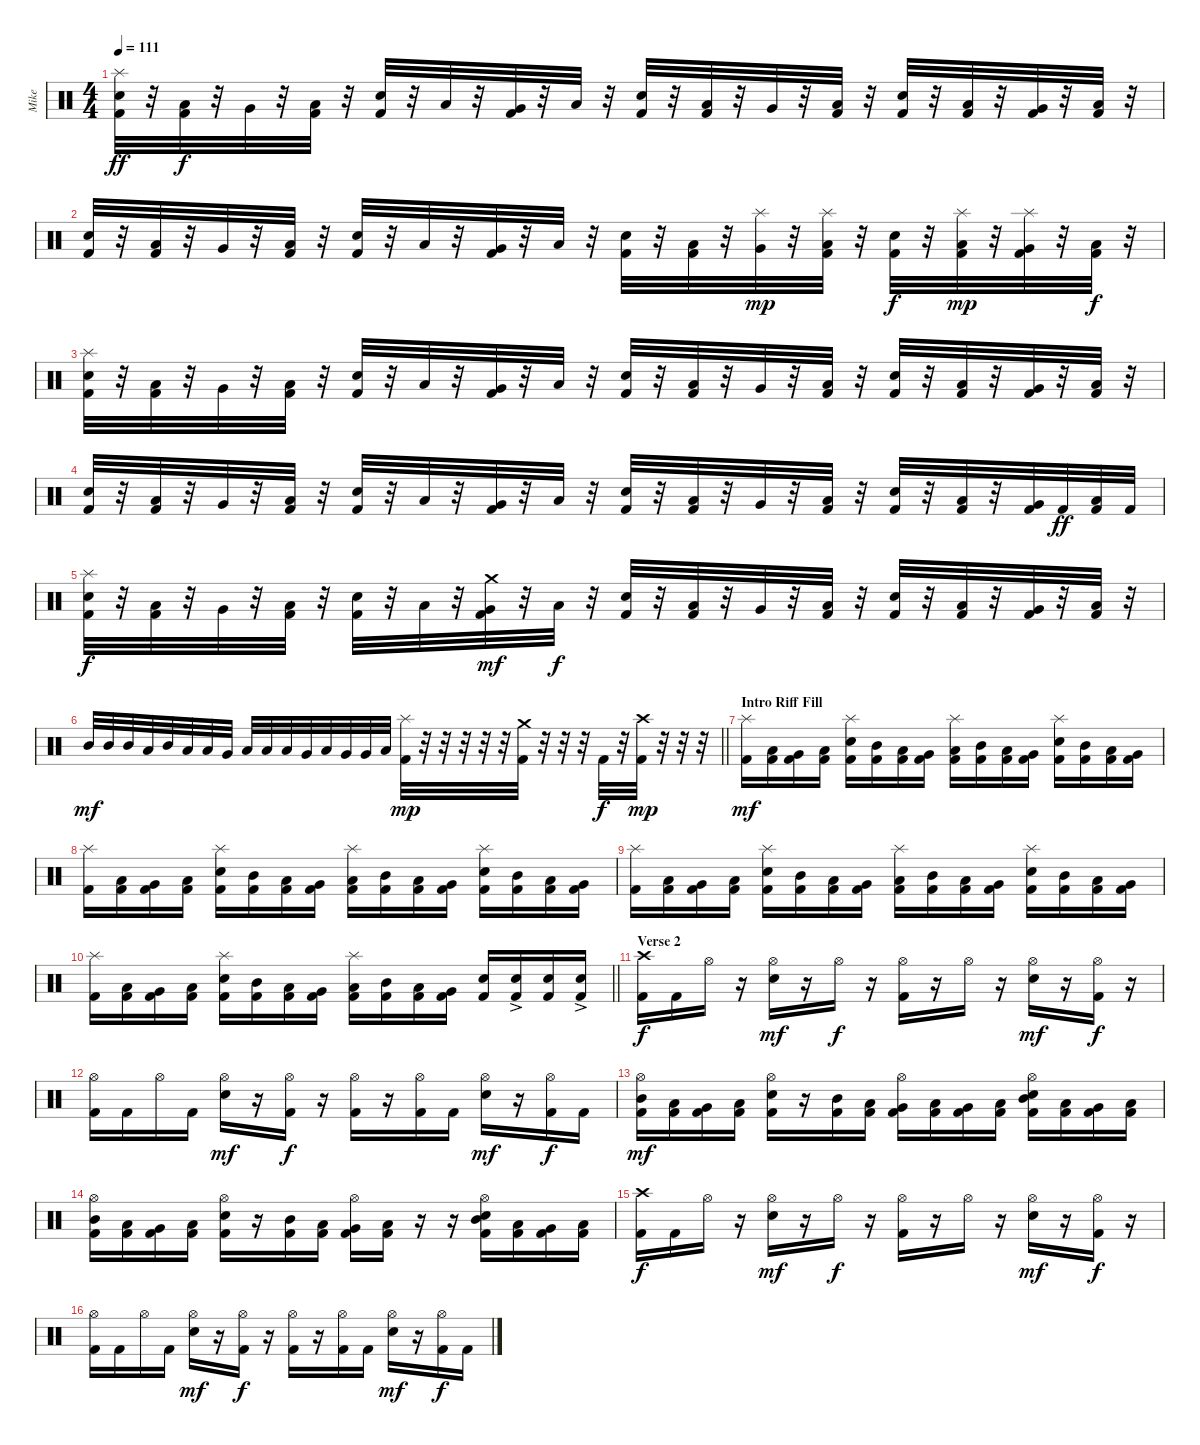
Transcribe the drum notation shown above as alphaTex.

\track ("Mike" "Mike") {instrument percussion}
\staff {score}
\articulation defaults
\ts (4 4)
\tempo 111
\clef neutral
\ks c
("Splash (hit)" "Snare (hit) 2" "Kick (hit) 2").32{dy ff} r.32 ("Low Tom (hit)" "Kick (hit) 2").32{dy f} r.32 "Very Low Tom (hit)".32 r.32 ("Low Floor Tom (hit)" "Kick (hit) 2").32 r.32 ("Snare (hit) 2" "Kick (hit) 2").32 r.32 "Low Tom (hit)".32 r.32 ("Very Low Tom (hit)" "Kick (hit) 2").32 r.32 "Low Floor Tom (hit)".32 r.32 ("Snare (hit) 2" "Kick (hit) 2").32 r.32 ("Low Tom (hit)" "Kick (hit) 2").32 r.32 "Very Low Tom (hit)".32 r.32 ("Low Floor Tom (hit)" "Kick (hit) 2").32 r.32 ("Snare (hit) 2" "Kick (hit) 2").32 r.32 ("Low Tom (hit)" "Kick (hit) 2").32 r.32 ("Very Low Tom (hit)" "Kick (hit) 2").32 r.32 ("Low Floor Tom (hit)" "Kick (hit) 2").32 r.32 |
("Snare (hit) 2" "Kick (hit) 2").32 r.32 ("Low Tom (hit)" "Kick (hit) 2").32 r.32 "Very Low Tom (hit)".32 r.32 ("Low Floor Tom (hit)" "Kick (hit) 2").32 r.32 ("Snare (hit) 2" "Kick (hit) 2").32 r.32 "Low Tom (hit)".32 r.32 ("Very Low Tom (hit)" "Kick (hit) 2").32 r.32 "Low Floor Tom (hit)".32 r.32 ("Snare (hit) 2" "Kick (hit) 2").32 r.32 ("Low Tom (hit)" "Kick (hit) 2").32 r.32 ("Splash (hit)" "Very Low Tom (hit)").32{dy mp} r.32 ("Splash (hit)" "Low Floor Tom (hit)" "Kick (hit) 2").32 r.32 ("Snare (hit) 2" "Kick (hit) 2").32{dy f} r.32 ("Splash (hit)" "Low Tom (hit)" "Kick (hit) 2").32{dy mp} r.32 ("Splash (hit)" "Very Low Tom (hit)" "Kick (hit) 2").32 r.32 ("Low Floor Tom (hit)" "Kick (hit) 2").32{dy f} r.32 |
("Splash (hit)" "Snare (hit) 2" "Kick (hit) 2").32 r.32 ("Low Tom (hit)" "Kick (hit) 2").32 r.32 "Very Low Tom (hit)".32 r.32 ("Low Floor Tom (hit)" "Kick (hit) 2").32 r.32 ("Snare (hit) 2" "Kick (hit) 2").32 r.32 "Low Tom (hit)".32 r.32 ("Very Low Tom (hit)" "Kick (hit) 2").32 r.32 "Low Floor Tom (hit)".32 r.32 ("Snare (hit) 2" "Kick (hit) 2").32 r.32 ("Low Tom (hit)" "Kick (hit) 2").32 r.32 "Very Low Tom (hit)".32 r.32 ("Low Floor Tom (hit)" "Kick (hit) 2").32 r.32 ("Snare (hit) 2" "Kick (hit) 2").32 r.32 ("Low Tom (hit)" "Kick (hit) 2").32 r.32 ("Very Low Tom (hit)" "Kick (hit) 2").32 r.32 ("Low Floor Tom (hit)" "Kick (hit) 2").32 r.32 |
("Snare (hit) 2" "Kick (hit) 2").32 r.32 ("Low Tom (hit)" "Kick (hit) 2").32 r.32 "Very Low Tom (hit)".32 r.32 ("Low Floor Tom (hit)" "Kick (hit) 2").32 r.32 ("Snare (hit) 2" "Kick (hit) 2").32 r.32 "Low Tom (hit)".32 r.32 ("Very Low Tom (hit)" "Kick (hit) 2").32 r.32 "Low Floor Tom (hit)".32 r.32 ("Snare (hit) 2" "Kick (hit) 2").32 r.32 ("Low Tom (hit)" "Kick (hit) 2").32 r.32 "Very Low Tom (hit)".32 r.32 ("Low Floor Tom (hit)" "Kick (hit) 2").32 r.32 ("Snare (hit) 2" "Kick (hit) 2").32 r.32 ("Low Tom (hit)" "Kick (hit) 2").32 r.32 ("Very Low Tom (hit)" "Kick (hit) 2").32 "Kick (hit) 2".32{dy ff} ("Low Floor Tom (hit)" "Kick (hit) 2").32 "Kick (hit) 2".32 |
("Splash (hit)" "Snare (hit) 2" "Kick (hit) 2").32{dy f} r.32 ("Low Tom (hit)" "Kick (hit) 2").32 r.32 "Very Low Tom (hit)".32 r.32 ("Low Floor Tom (hit)" "Kick (hit) 2").32 r.32 ("Snare (hit) 2" "Kick (hit) 2").32 r.32 "Low Tom (hit)".32 r.32 ("Crash medium (hit)" "Very Low Tom (hit)" "Kick (hit) 2").32{dy mf} r.32 "Low Floor Tom (hit)".32{dy f} r.32 ("Snare (hit) 2" "Kick (hit) 2").32 r.32 ("Low Tom (hit)" "Kick (hit) 2").32 r.32 "Very Low Tom (hit)".32 r.32 ("Low Floor Tom (hit)" "Kick (hit) 2").32 r.32 ("Snare (hit) 2" "Kick (hit) 2").32 r.32 ("Low Tom (hit)" "Kick (hit) 2").32 r.32 ("Very Low Tom (hit)" "Kick (hit) 2").32 r.32 ("Low Floor Tom (hit)" "Kick (hit) 2").32 r.32 |
\barLineRight lightlight "Mid Tom (hit)".32{dy mf} "Mid Tom (hit)".32 "Mid Tom (hit)".32 "Low Tom (hit)".32 "Mid Tom (hit)".32 "Low Tom (hit)".32 "Low Tom (hit)".32 "Very Low Tom (hit)".32 "Low Tom (hit)".32 "Low Tom (hit)".32 "Low Tom (hit)".32 "Very Low Tom (hit)".32 "Low Tom (hit)".32 "Very Low Tom (hit)".32 "Very Low Tom (hit)".32 "Low Floor Tom (hit)".32
("Splash (hit)" "Kick (hit) 2").32{dy mp} r.32 r.32 r.32 r.32 r.32 ("Crash medium (hit)" "Kick (hit) 2").32 r.32 r.32 r.32 "Kick (hit) 2".32{dy f} r.32 ("Crash high (hit)" "Kick (hit) 2").32{dy mp} r.32 r.32 r.32 |
\section ("" "Intro Riff Fill")
("Splash (hit)" "Kick (hit) 2").16{dy mf} ("Low Tom (hit)" "Kick (hit) 2").16 ("Very Low Tom (hit)" "Kick (hit) 2").16 ("Low Tom (hit)" "Kick (hit) 2").16 ("Splash (hit)" "Snare (hit) 2" "Kick (hit) 2").16 ("Mid Tom (hit)" "Kick (hit) 2").16 ("Low Tom (hit)" "Kick (hit) 2").16 ("Very Low Tom (hit)" "Kick (hit) 2").16 ("Splash (hit)" "Low Tom (hit)" "Kick (hit) 2").16 ("Mid Tom (hit)" "Kick (hit) 2").16 ("Low Tom (hit)" "Kick (hit) 2").16 ("Very Low Tom (hit)" "Kick (hit) 2").16 ("Splash (hit)" "Snare (hit) 2" "Kick (hit) 2").16 ("Mid Tom (hit)" "Kick (hit) 2").16 ("Low Tom (hit)" "Kick (hit) 2").16 ("Very Low Tom (hit)" "Kick (hit) 2").16 |
("Splash (hit)" "Kick (hit) 2").16 ("Low Tom (hit)" "Kick (hit) 2").16 ("Very Low Tom (hit)" "Kick (hit) 2").16 ("Low Tom (hit)" "Kick (hit) 2").16 ("Splash (hit)" "Snare (hit) 2" "Kick (hit) 2").16 ("Mid Tom (hit)" "Kick (hit) 2").16 ("Low Tom (hit)" "Kick (hit) 2").16 ("Very Low Tom (hit)" "Kick (hit) 2").16 ("Splash (hit)" "Low Tom (hit)" "Kick (hit) 2").16 ("Mid Tom (hit)" "Kick (hit) 2").16 ("Low Tom (hit)" "Kick (hit) 2").16 ("Very Low Tom (hit)" "Kick (hit) 2").16 ("Splash (hit)" "Snare (hit) 2" "Kick (hit) 2").16 ("Mid Tom (hit)" "Kick (hit) 2").16 ("Low Tom (hit)" "Kick (hit) 2").16 ("Very Low Tom (hit)" "Kick (hit) 2").16 |
("Splash (hit)" "Kick (hit) 2").16 ("Low Tom (hit)" "Kick (hit) 2").16 ("Very Low Tom (hit)" "Kick (hit) 2").16 ("Low Tom (hit)" "Kick (hit) 2").16 ("Splash (hit)" "Snare (hit) 2" "Kick (hit) 2").16 ("Mid Tom (hit)" "Kick (hit) 2").16 ("Low Tom (hit)" "Kick (hit) 2").16 ("Very Low Tom (hit)" "Kick (hit) 2").16 ("Splash (hit)" "Low Tom (hit)" "Kick (hit) 2").16 ("Mid Tom (hit)" "Kick (hit) 2").16 ("Low Tom (hit)" "Kick (hit) 2").16 ("Very Low Tom (hit)" "Kick (hit) 2").16 ("Splash (hit)" "Snare (hit) 2" "Kick (hit) 2").16 ("Mid Tom (hit)" "Kick (hit) 2").16 ("Low Tom (hit)" "Kick (hit) 2").16 ("Very Low Tom (hit)" "Kick (hit) 2").16 |
\barLineRight lightlight
("Splash (hit)" "Kick (hit) 2").16 ("Low Tom (hit)" "Kick (hit) 2").16 ("Very Low Tom (hit)" "Kick (hit) 2").16 ("Low Tom (hit)" "Kick (hit) 2").16 ("Splash (hit)" "Snare (hit) 2" "Kick (hit) 2").16 ("Mid Tom (hit)" "Kick (hit) 2").16 ("Low Tom (hit)" "Kick (hit) 2").16 ("Very Low Tom (hit)" "Kick (hit) 2").16 ("Splash (hit)" "Low Tom (hit)" "Kick (hit) 2").16 ("Mid Tom (hit)" "Kick (hit) 2").16 ("Low Tom (hit)" "Kick (hit) 2").16 ("Very Low Tom (hit)" "Kick (hit) 2").16 ("Snare (hit) 2" "Kick (hit) 2").16 ("Snare (hit) 2"{ac} "Kick (hit) 2").16 ("Snare (hit) 2" "Kick (hit) 2").16 ("Snare (hit) 2"{ac} "Kick (hit) 2").16 |
\section ("" "Verse 2")
("Crash high (hit)" "Kick (hit) 2").16{dy f} "Kick (hit) 2".16 "Hi-Hat (open)".16 r.16 ("Hi-Hat (open)" "Snare (hit) 2").16{dy mf} r.16 "Hi-Hat (open)".16{dy f} r.16 ("Hi-Hat (open)" "Kick (hit) 2").16 r.16 "Hi-Hat (open)".16 r.16 ("Hi-Hat (open)" "Snare (hit) 2").16{dy mf} r.16 ("Hi-Hat (open)" "Kick (hit) 2").16{dy f} r.16 |
("Hi-Hat (open)" "Kick (hit) 2").16 "Kick (hit) 2".16 "Hi-Hat (open)".16 "Kick (hit) 2".16 ("Hi-Hat (open)" "Snare (hit) 2").16{dy mf} r.16 ("Hi-Hat (open)" "Kick (hit) 2").16{dy f} r.16 ("Hi-Hat (open)" "Kick (hit) 2").16 r.16 ("Hi-Hat (open)" "Kick (hit) 2").16 "Kick (hit) 2".16 ("Hi-Hat (open)" "Snare (hit) 2").16{dy mf} r.16 ("Hi-Hat (open)" "Kick (hit) 2").16{dy f} "Kick (hit) 2".16 |
("Hi-Hat (open)" "Mid Tom (hit)" "Kick (hit) 2").16{dy mf} ("Low Tom (hit)" "Kick (hit) 2").16 ("Very Low Tom (hit)" "Kick (hit) 2").16 ("Low Tom (hit)" "Kick (hit) 2").16 ("Hi-Hat (open)" "Snare (hit) 2" "Kick (hit) 2").16 r.16 ("Mid Tom (hit)" "Kick (hit) 2").16 ("Low Tom (hit)" "Kick (hit) 2").16 ("Hi-Hat (open)" "Very Low Tom (hit)" "Kick (hit) 2").16 ("Low Tom (hit)" "Kick (hit) 2").16 ("Very Low Tom (hit)" "Kick (hit) 2").16 ("Low Tom (hit)" "Kick (hit) 2").16 ("Hi-Hat (open)" "Mid Tom (hit)" "Snare (hit) 2" "Kick (hit) 2").16 ("Low Tom (hit)" "Kick (hit) 2").16 ("Very Low Tom (hit)" "Kick (hit) 2").16 ("Low Tom (hit)" "Kick (hit) 2").16 |
("Hi-Hat (open)" "Mid Tom (hit)" "Kick (hit) 2").16 ("Low Tom (hit)" "Kick (hit) 2").16 ("Very Low Tom (hit)" "Kick (hit) 2").16 ("Low Tom (hit)" "Kick (hit) 2").16 ("Hi-Hat (open)" "Snare (hit) 2" "Kick (hit) 2").16 r.16 ("Mid Tom (hit)" "Kick (hit) 2").16 ("Low Tom (hit)" "Kick (hit) 2").16 ("Hi-Hat (open)" "Very Low Tom (hit)" "Kick (hit) 2").16 ("Low Tom (hit)" "Kick (hit) 2").16 r.16 r.16 ("Hi-Hat (open)" "Mid Tom (hit)" "Snare (hit) 2" "Kick (hit) 2").16 ("Low Tom (hit)" "Kick (hit) 2").16 ("Very Low Tom (hit)" "Kick (hit) 2").16 ("Low Tom (hit)" "Kick (hit) 2").16 |
("Crash high (hit)" "Kick (hit) 2").16{dy f} "Kick (hit) 2".16 "Hi-Hat (open)".16 r.16 ("Hi-Hat (open)" "Snare (hit) 2").16{dy mf} r.16 "Hi-Hat (open)".16{dy f} r.16 ("Hi-Hat (open)" "Kick (hit) 2").16 r.16 "Hi-Hat (open)".16 r.16 ("Hi-Hat (open)" "Snare (hit) 2").16{dy mf} r.16 ("Hi-Hat (open)" "Kick (hit) 2").16{dy f} r.16 |
("Hi-Hat (open)" "Kick (hit) 2").16 "Kick (hit) 2".16 "Hi-Hat (open)".16 "Kick (hit) 2".16 ("Hi-Hat (open)" "Snare (hit) 2").16{dy mf} r.16 ("Hi-Hat (open)" "Kick (hit) 2").16{dy f} r.16 ("Hi-Hat (open)" "Kick (hit) 2").16 r.16 ("Hi-Hat (open)" "Kick (hit) 2").16 "Kick (hit) 2".16 ("Hi-Hat (open)" "Snare (hit) 2").16{dy mf} r.16 ("Hi-Hat (open)" "Kick (hit) 2").16{dy f} "Kick (hit) 2".16
